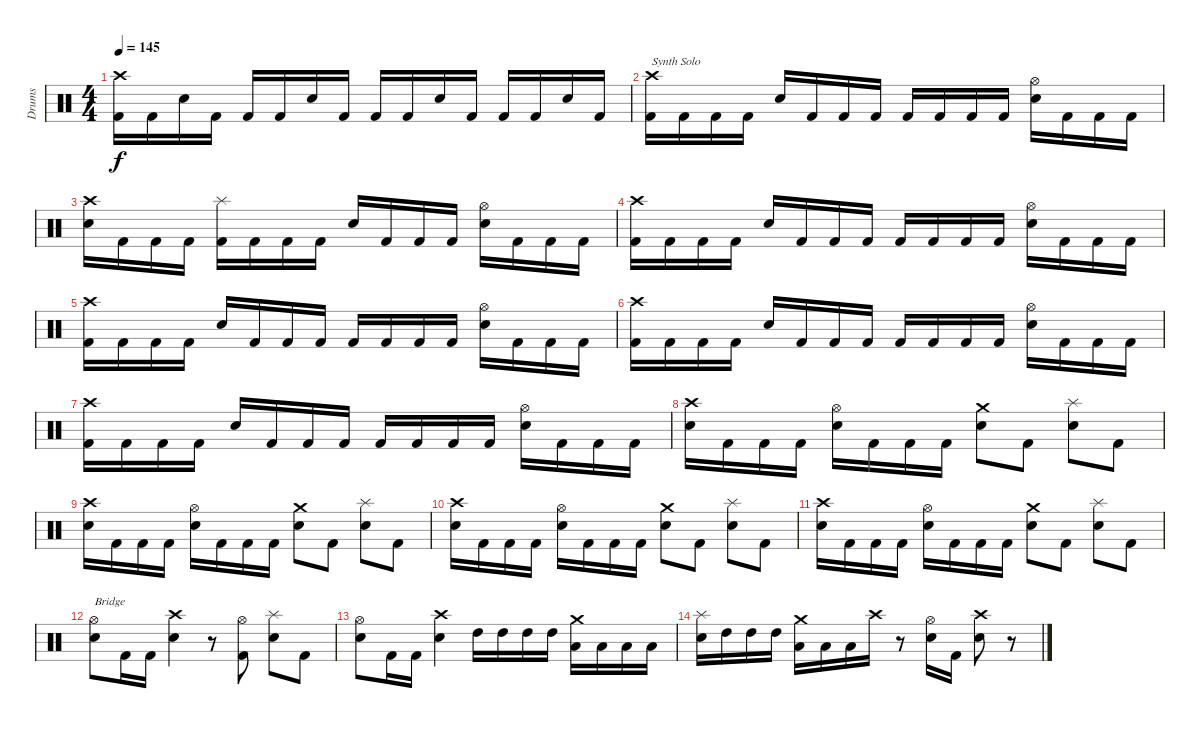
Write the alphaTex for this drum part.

\track ("Drums" "Drums") {instrument percussion}
\staff {score}
\articulation defaults
\ts (4 4)
\tempo 145
\clef neutral
\ks c
("Crash high (hit)" "Kick (hit) 2").16{dy f} "Kick (hit) 2".16 "Snare (hit) 2".16 "Kick (hit) 2".16 "Kick (hit) 2".16 "Kick (hit) 2".16 "Snare (hit) 2".16 "Kick (hit) 2".16 "Kick (hit) 2".16 "Kick (hit) 2".16 "Snare (hit) 2".16 "Kick (hit) 2".16 "Kick (hit) 2".16 "Kick (hit) 2".16 "Snare (hit) 2".16 "Kick (hit) 2".16 |
("Crash high (hit)" "Kick (hit) 2").16{txt "Synth Solo"} "Kick (hit) 2".16 "Kick (hit) 2".16 "Kick (hit) 2".16 "Snare (hit) 2".16 "Kick (hit) 2".16 "Kick (hit) 2".16 "Kick (hit) 2".16 "Kick (hit) 2".16 "Kick (hit) 2".16 "Kick (hit) 2".16 "Kick (hit) 2".16 ("Hi-Hat (open)" "Snare (hit) 2").16 "Kick (hit) 2".16 "Kick (hit) 2".16 "Kick (hit) 2".16 |
("Crash high (hit)" "Snare (hit) 2").16 "Kick (hit) 2".16 "Kick (hit) 2".16 "Kick (hit) 2".16 ("Splash (hit)" "Kick (hit) 2").16 "Kick (hit) 2".16 "Kick (hit) 2".16 "Kick (hit) 2".16 "Snare (hit) 2".16 "Kick (hit) 2".16 "Kick (hit) 2".16 "Kick (hit) 2".16 ("Hi-Hat (open)" "Snare (hit) 2").16 "Kick (hit) 2".16 "Kick (hit) 2".16 "Kick (hit) 2".16 |
("Crash high (hit)" "Kick (hit) 2").16 "Kick (hit) 2".16 "Kick (hit) 2".16 "Kick (hit) 2".16 "Snare (hit) 2".16 "Kick (hit) 2".16 "Kick (hit) 2".16 "Kick (hit) 2".16 "Kick (hit) 2".16 "Kick (hit) 2".16 "Kick (hit) 2".16 "Kick (hit) 2".16 ("Hi-Hat (open)" "Snare (hit) 2").16 "Kick (hit) 2".16 "Kick (hit) 2".16 "Kick (hit) 2".16 |
("Crash high (hit)" "Kick (hit) 2").16 "Kick (hit) 2".16 "Kick (hit) 2".16 "Kick (hit) 2".16 "Snare (hit) 2".16 "Kick (hit) 2".16 "Kick (hit) 2".16 "Kick (hit) 2".16 "Kick (hit) 2".16 "Kick (hit) 2".16 "Kick (hit) 2".16 "Kick (hit) 2".16 ("Hi-Hat (open)" "Snare (hit) 2").16 "Kick (hit) 2".16 "Kick (hit) 2".16 "Kick (hit) 2".16 |
("Crash high (hit)" "Kick (hit) 2").16 "Kick (hit) 2".16 "Kick (hit) 2".16 "Kick (hit) 2".16 "Snare (hit) 2".16 "Kick (hit) 2".16 "Kick (hit) 2".16 "Kick (hit) 2".16 "Kick (hit) 2".16 "Kick (hit) 2".16 "Kick (hit) 2".16 "Kick (hit) 2".16 ("Hi-Hat (open)" "Snare (hit) 2").16 "Kick (hit) 2".16 "Kick (hit) 2".16 "Kick (hit) 2".16 |
("Crash high (hit)" "Kick (hit) 2").16 "Kick (hit) 2".16 "Kick (hit) 2".16 "Kick (hit) 2".16 "Snare (hit) 2".16 "Kick (hit) 2".16 "Kick (hit) 2".16 "Kick (hit) 2".16 "Kick (hit) 2".16 "Kick (hit) 2".16 "Kick (hit) 2".16 "Kick (hit) 2".16 ("Hi-Hat (open)" "Snare (hit) 2").16 "Kick (hit) 2".16 "Kick (hit) 2".16 "Kick (hit) 2".16 |
("Crash high (hit)" "Snare (hit) 2").16 "Kick (hit) 2".16 "Kick (hit) 2".16 "Kick (hit) 2".16 ("Hi-Hat (open)" "Snare (hit) 2").16 "Kick (hit) 2".16 "Kick (hit) 2".16 "Kick (hit) 2".16 ("Crash medium (hit)" "Snare (hit) 2").8 "Kick (hit) 2".8 ("Splash (hit)" "Snare (hit) 2").8 "Kick (hit) 2".8 |
("Crash high (hit)" "Snare (hit) 2").16 "Kick (hit) 2".16 "Kick (hit) 2".16 "Kick (hit) 2".16 ("Hi-Hat (open)" "Snare (hit) 2").16 "Kick (hit) 2".16 "Kick (hit) 2".16 "Kick (hit) 2".16 ("Crash medium (hit)" "Snare (hit) 2").8 "Kick (hit) 2".8 ("Splash (hit)" "Snare (hit) 2").8 "Kick (hit) 2".8 |
("Crash high (hit)" "Snare (hit) 2").16 "Kick (hit) 2".16 "Kick (hit) 2".16 "Kick (hit) 2".16 ("Hi-Hat (open)" "Snare (hit) 2").16 "Kick (hit) 2".16 "Kick (hit) 2".16 "Kick (hit) 2".16 ("Crash medium (hit)" "Snare (hit) 2").8 "Kick (hit) 2".8 ("Splash (hit)" "Snare (hit) 2").8 "Kick (hit) 2".8 |
("Crash high (hit)" "Snare (hit) 2").16 "Kick (hit) 2".16 "Kick (hit) 2".16 "Kick (hit) 2".16 ("Hi-Hat (open)" "Snare (hit) 2").16 "Kick (hit) 2".16 "Kick (hit) 2".16 "Kick (hit) 2".16 ("Crash medium (hit)" "Snare (hit) 2").8 "Kick (hit) 2".8 ("Splash (hit)" "Snare (hit) 2").8 "Kick (hit) 2".8 |
("Hi-Hat (open)" "Snare (hit) 2").8{txt "Bridge"} "Kick (hit) 2".16 "Kick (hit) 2".16 ("Crash high (hit)" "Snare (hit) 2").4 r.8 ("Hi-Hat (open)" "Kick (hit) 2").8 ("Splash (hit)" "Snare (hit) 2").8 "Kick (hit) 2".8 |
("Hi-Hat (open)" "Snare (hit) 2").8 "Kick (hit) 2".16 "Kick (hit) 2".16 ("Crash high (hit)" "Snare (hit) 2").4 "High Tom (hit)".16 "High Tom (hit)".16 "High Tom (hit)".16 "High Tom (hit)".16 ("Low Tom (hit)" "Crash medium (hit)").16 "Low Tom (hit)".16 "Low Tom (hit)".16 "Low Tom (hit)".16 |
("Splash (hit)" "Snare (hit) 2").16 "High Tom (hit)".16 "High Tom (hit)".16 "High Tom (hit)".16 ("Low Tom (hit)" "Crash medium (hit)").16 "Low Tom (hit)".16 "Low Tom (hit)".16 "Crash high (hit)".16 r.8 ("Hi-Hat (open)" "Snare (hit) 2").16 "Kick (hit) 2".16 ("Crash high (hit)" "Snare (hit) 2").8 r.8
